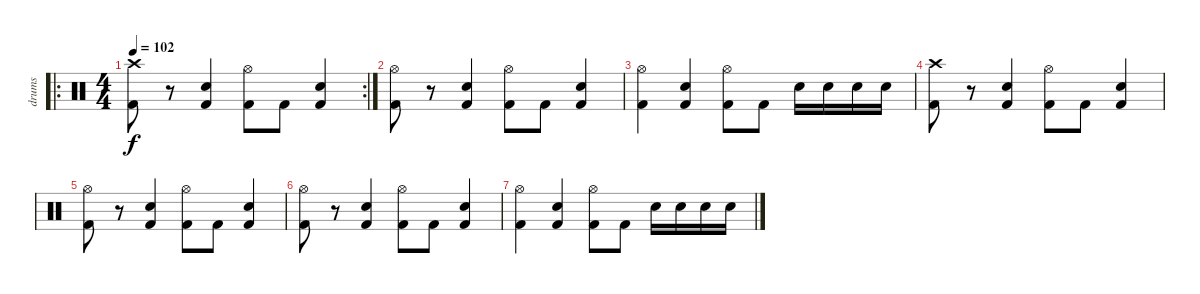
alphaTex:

\track ("drums" "drums") {instrument percussion}
\staff {score}
\articulation defaults
\ro
\rc 2
\ts (4 4)
\tempo 102
\clef neutral
\ks c
("Crash high (hit)" "Kick (hit) 2").8{dy f} r.8 ("Electric Snare (hit)" "Kick (hit) 2").4 ("Hi-Hat (open)" "Kick (hit) 2").8 "Kick (hit) 2".8 ("Electric Snare (hit)" "Kick (hit) 2").4 |
("Hi-Hat (open)" "Kick (hit) 2").8 r.8 ("Electric Snare (hit)" "Kick (hit) 2").4 ("Hi-Hat (open)" "Kick (hit) 2").8 "Kick (hit) 2".8 ("Electric Snare (hit)" "Kick (hit) 2").4 |
("Hi-Hat (open)" "Kick (hit) 2").4 ("Electric Snare (hit)" "Kick (hit) 2").4 ("Hi-Hat (open)" "Kick (hit) 2").8 "Kick (hit) 2".8 "Electric Snare (hit)".16 "Electric Snare (hit)".16 "Snare (hit) 2".16 "Snare (hit) 2".16 |
("Crash high (hit)" "Kick (hit) 2").8{volume 5} r.8 ("Electric Snare (hit)" "Kick (hit) 2").4 ("Hi-Hat (open)" "Kick (hit) 2").8 "Kick (hit) 2".8 ("Electric Snare (hit)" "Kick (hit) 2").4 |
("Hi-Hat (open)" "Kick (hit) 2").8 r.8 ("Electric Snare (hit)" "Kick (hit) 2").4 ("Hi-Hat (open)" "Kick (hit) 2").8 "Kick (hit) 2".8 ("Electric Snare (hit)" "Kick (hit) 2").4 |
("Hi-Hat (open)" "Kick (hit) 2").8 r.8 ("Electric Snare (hit)" "Kick (hit) 2").4 ("Hi-Hat (open)" "Kick (hit) 2").8 "Kick (hit) 2".8 ("Electric Snare (hit)" "Kick (hit) 2").4 |
("Hi-Hat (open)" "Kick (hit) 2").4 ("Electric Snare (hit)" "Kick (hit) 2").4 ("Hi-Hat (open)" "Kick (hit) 2").8 "Kick (hit) 2".8 "Electric Snare (hit)".16 "Electric Snare (hit)".16 "Snare (hit) 2".16 "Snare (hit) 2".16
